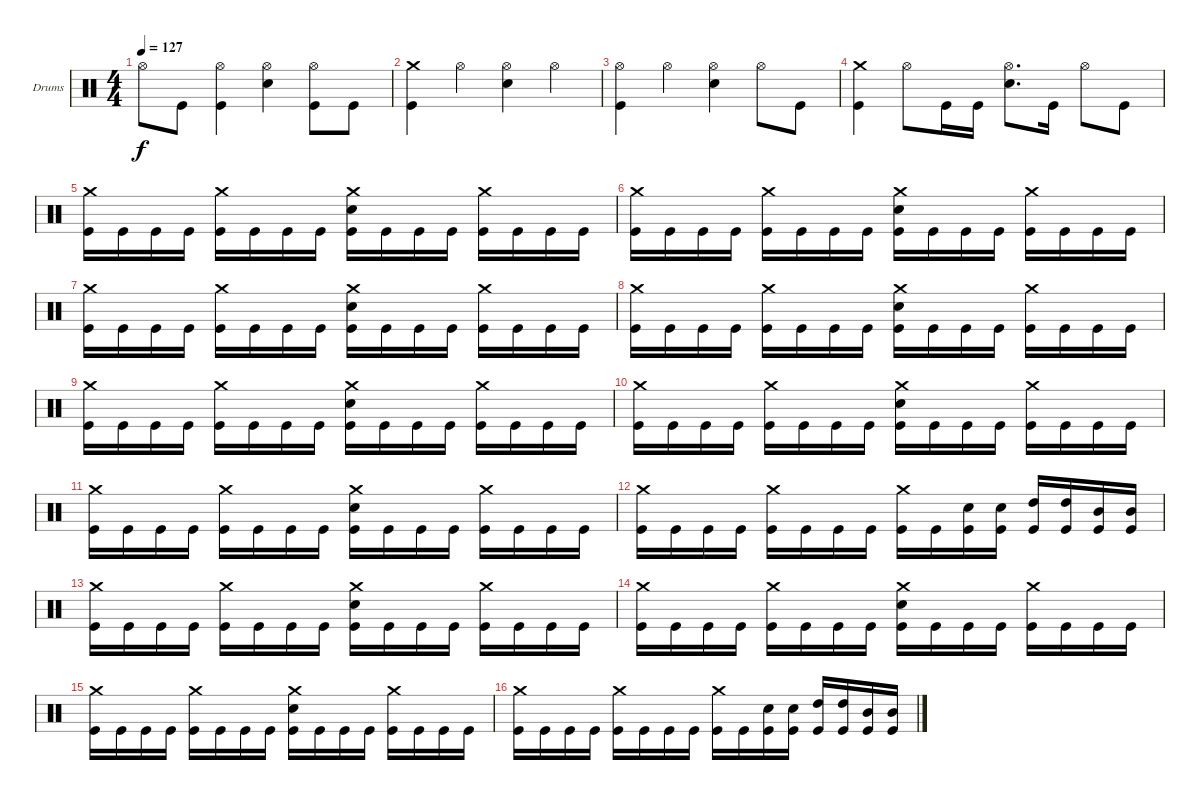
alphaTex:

\bracketExtendMode groupsimilarinstruments
\firstSystemTrackNameOrientation horizontal
\otherSystemsTrackNameOrientation horizontal
\track ("Drumkit" "Drums") {instrument percussion}
\staff {score}
\articulation defaults
\ts (4 4)
\tempo 127
\clef neutral
\ks c "Hi-Hat (open)".8{dy f} "Kick (hit)".8
("Hi-Hat (open)" "Kick (hit)").4 ("Hi-Hat (open)" "Snare (hit) 2").4 ("Hi-Hat (open)" "Kick (hit)").8 "Kick (hit)".8 |
("Crash medium (hit)" "Kick (hit)").4 "Hi-Hat (open)".4 ("Hi-Hat (open)" "Snare (hit) 2").4 "Hi-Hat (open)".4 |
("Hi-Hat (open)" "Kick (hit)").4 "Hi-Hat (open)".4 ("Hi-Hat (open)" "Snare (hit) 2").4 "Hi-Hat (open)".8 "Kick (hit)".8 |
("Crash medium (hit)" "Kick (hit)").4 "Hi-Hat (open)".8 "Kick (hit)".16 "Kick (hit)".16 ("Hi-Hat (open)" "Snare (hit) 2").8{d} "Kick (hit)".16 "Hi-Hat (open)".8 "Kick (hit)".8 |
("Crash medium (hit)" "Kick (hit)").16 "Kick (hit)".16 "Kick (hit)".16 "Kick (hit)".16 ("Crash medium (hit)" "Kick (hit)").16 "Kick (hit)".16 "Kick (hit)".16 "Kick (hit)".16 ("Crash medium (hit)" "Snare (hit) 2" "Kick (hit)").16 "Kick (hit)".16 "Kick (hit)".16 "Kick (hit)".16 ("Crash medium (hit)" "Kick (hit)").16 "Kick (hit)".16 "Kick (hit)".16 "Kick (hit)".16 |
("Crash medium (hit)" "Kick (hit)").16 "Kick (hit)".16 "Kick (hit)".16 "Kick (hit)".16 ("Crash medium (hit)" "Kick (hit)").16 "Kick (hit)".16 "Kick (hit)".16 "Kick (hit)".16 ("Crash medium (hit)" "Snare (hit) 2" "Kick (hit)").16 "Kick (hit)".16 "Kick (hit)".16 "Kick (hit)".16 ("Crash medium (hit)" "Kick (hit)").16 "Kick (hit)".16 "Kick (hit)".16 "Kick (hit)".16 |
("Crash medium (hit)" "Kick (hit)").16 "Kick (hit)".16 "Kick (hit)".16 "Kick (hit)".16 ("Crash medium (hit)" "Kick (hit)").16 "Kick (hit)".16 "Kick (hit)".16 "Kick (hit)".16 ("Crash medium (hit)" "Snare (hit) 2" "Kick (hit)").16 "Kick (hit)".16 "Kick (hit)".16 "Kick (hit)".16 ("Crash medium (hit)" "Kick (hit)").16 "Kick (hit)".16 "Kick (hit)".16 "Kick (hit)".16 |
("Crash medium (hit)" "Kick (hit)").16 "Kick (hit)".16 "Kick (hit)".16 "Kick (hit)".16 ("Crash medium (hit)" "Kick (hit)").16 "Kick (hit)".16 "Kick (hit)".16 "Kick (hit)".16 ("Crash medium (hit)" "Snare (hit) 2" "Kick (hit)").16 "Kick (hit)".16 "Kick (hit)".16 "Kick (hit)".16 ("Crash medium (hit)" "Kick (hit)").16 "Kick (hit)".16 "Kick (hit)".16 "Kick (hit)".16 |
("Crash medium (hit)" "Kick (hit)").16 "Kick (hit)".16 "Kick (hit)".16 "Kick (hit)".16 ("Crash medium (hit)" "Kick (hit)").16 "Kick (hit)".16 "Kick (hit)".16 "Kick (hit)".16 ("Crash medium (hit)" "Snare (hit) 2" "Kick (hit)").16 "Kick (hit)".16 "Kick (hit)".16 "Kick (hit)".16 ("Crash medium (hit)" "Kick (hit)").16 "Kick (hit)".16 "Kick (hit)".16 "Kick (hit)".16 |
("Crash medium (hit)" "Kick (hit)").16 "Kick (hit)".16 "Kick (hit)".16 "Kick (hit)".16 ("Crash medium (hit)" "Kick (hit)").16 "Kick (hit)".16 "Kick (hit)".16 "Kick (hit)".16 ("Crash medium (hit)" "Snare (hit) 2" "Kick (hit)").16 "Kick (hit)".16 "Kick (hit)".16 "Kick (hit)".16 ("Crash medium (hit)" "Kick (hit)").16 "Kick (hit)".16 "Kick (hit)".16 "Kick (hit)".16 |
("Crash medium (hit)" "Kick (hit)").16 "Kick (hit)".16 "Kick (hit)".16 "Kick (hit)".16 ("Crash medium (hit)" "Kick (hit)").16 "Kick (hit)".16 "Kick (hit)".16 "Kick (hit)".16 ("Crash medium (hit)" "Snare (hit) 2" "Kick (hit)").16 "Kick (hit)".16 "Kick (hit)".16 "Kick (hit)".16 ("Crash medium (hit)" "Kick (hit)").16 "Kick (hit)".16 "Kick (hit)".16 "Kick (hit)".16 |
("Crash medium (hit)" "Kick (hit)").16 "Kick (hit)".16 "Kick (hit)".16 "Kick (hit)".16 ("Crash medium (hit)" "Kick (hit)").16 "Kick (hit)".16 "Kick (hit)".16 "Kick (hit)".16 ("Crash medium (hit)" "Kick (hit)").16 "Kick (hit)".16 ("Snare (hit) 2" "Kick (hit)").16 ("Snare (hit) 2" "Kick (hit)").16 ("High Tom (hit)" "Kick (hit)").16 ("High Tom (hit)" "Kick (hit)").16 ("Mid Tom (hit)" "Kick (hit)").16 ("Mid Tom (hit)" "Kick (hit)").16 |
("Crash medium (hit)" "Kick (hit)").16 "Kick (hit)".16 "Kick (hit)".16 "Kick (hit)".16 ("Crash medium (hit)" "Kick (hit)").16 "Kick (hit)".16 "Kick (hit)".16 "Kick (hit)".16 ("Crash medium (hit)" "Snare (hit) 2" "Kick (hit)").16 "Kick (hit)".16 "Kick (hit)".16 "Kick (hit)".16 ("Crash medium (hit)" "Kick (hit)").16 "Kick (hit)".16 "Kick (hit)".16 "Kick (hit)".16 |
("Crash medium (hit)" "Kick (hit)").16 "Kick (hit)".16 "Kick (hit)".16 "Kick (hit)".16 ("Crash medium (hit)" "Kick (hit)").16 "Kick (hit)".16 "Kick (hit)".16 "Kick (hit)".16 ("Crash medium (hit)" "Snare (hit) 2" "Kick (hit)").16 "Kick (hit)".16 "Kick (hit)".16 "Kick (hit)".16 ("Crash medium (hit)" "Kick (hit)").16 "Kick (hit)".16 "Kick (hit)".16 "Kick (hit)".16 |
("Crash medium (hit)" "Kick (hit)").16 "Kick (hit)".16 "Kick (hit)".16 "Kick (hit)".16 ("Crash medium (hit)" "Kick (hit)").16 "Kick (hit)".16 "Kick (hit)".16 "Kick (hit)".16 ("Crash medium (hit)" "Snare (hit) 2" "Kick (hit)").16 "Kick (hit)".16 "Kick (hit)".16 "Kick (hit)".16 ("Crash medium (hit)" "Kick (hit)").16 "Kick (hit)".16 "Kick (hit)".16 "Kick (hit)".16 |
("Crash medium (hit)" "Kick (hit)").16 "Kick (hit)".16 "Kick (hit)".16 "Kick (hit)".16 ("Crash medium (hit)" "Kick (hit)").16 "Kick (hit)".16 "Kick (hit)".16 "Kick (hit)".16 ("Crash medium (hit)" "Kick (hit)").16 "Kick (hit)".16 ("Snare (hit) 2" "Kick (hit)").16 ("Snare (hit) 2" "Kick (hit)").16 ("High Tom (hit)" "Kick (hit)").16 ("High Tom (hit)" "Kick (hit)").16 ("Mid Tom (hit)" "Kick (hit)").16 ("Mid Tom (hit)" "Kick (hit)").16
